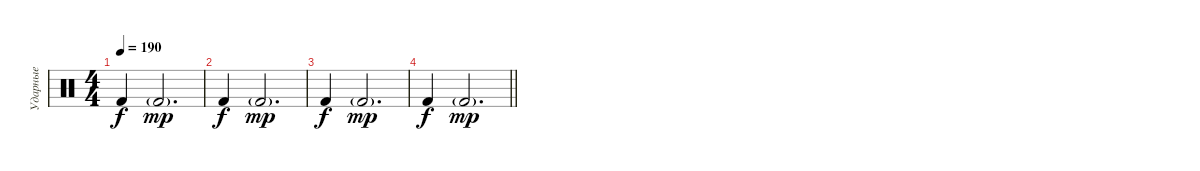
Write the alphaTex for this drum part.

\track ("Ударные" "Ударные") {instrument percussion}
\staff {score}
\articulation defaults
\ts (4 4)
\tempo 190
\clef neutral
\ks c "Kick (hit) 2".4{dy f} "Kick (hit) 2"{g}.2{d dy mp}
|
"Kick (hit) 2".4{dy f} "Kick (hit) 2"{g}.2{d dy mp} |
"Kick (hit) 2".4{dy f} "Kick (hit) 2"{g}.2{d dy mp} |
\barLineRight lightlight "Kick (hit) 2".4{dy f} "Kick (hit) 2"{g}.2{d dy mp}
